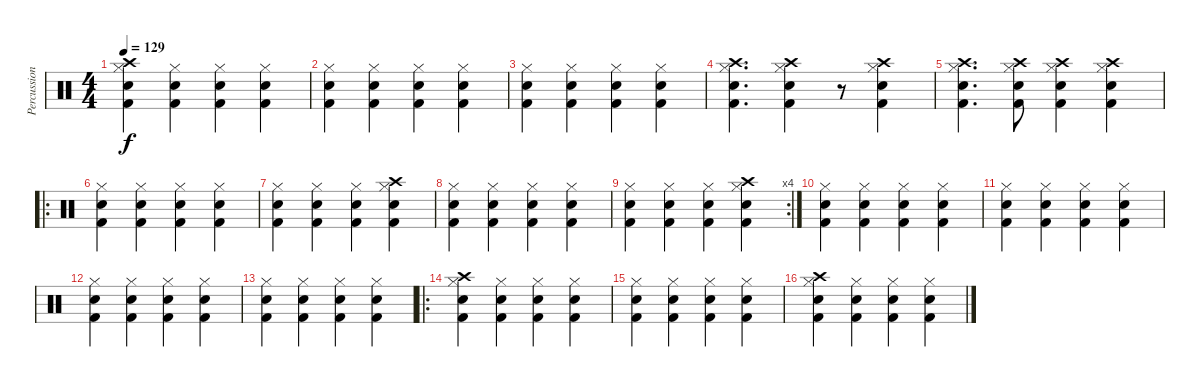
\track ("Percussion" "Percussion") {instrument percussion}
\staff {score}
\articulation defaults
\ts (4 4)
\tempo 129
\clef neutral
\ks c
("Crash high (hit)" "Hi-Hat (closed)" "Electric Snare (hit)" "Kick (hit) 2").4{dy f} ("Hi-Hat (closed)" "Electric Snare (hit)" "Kick (hit) 2").4 ("Hi-Hat (closed)" "Electric Snare (hit)" "Kick (hit) 2").4 ("Hi-Hat (closed)" "Electric Snare (hit)" "Kick (hit) 2").4 |
("Hi-Hat (closed)" "Electric Snare (hit)" "Kick (hit) 2").4 ("Hi-Hat (closed)" "Electric Snare (hit)" "Kick (hit) 2").4 ("Hi-Hat (closed)" "Electric Snare (hit)" "Kick (hit) 2").4 ("Hi-Hat (closed)" "Electric Snare (hit)" "Kick (hit) 2").4 |
("Hi-Hat (closed)" "Electric Snare (hit)" "Kick (hit) 2").4 ("Hi-Hat (closed)" "Electric Snare (hit)" "Kick (hit) 2").4 ("Hi-Hat (closed)" "Electric Snare (hit)" "Kick (hit) 2").4 ("Hi-Hat (closed)" "Electric Snare (hit)" "Kick (hit) 2").4 |
("Crash high (hit)" "Hi-Hat (closed)" "Electric Snare (hit)" "Kick (hit) 2").4{d} ("Crash high (hit)" "Hi-Hat (closed)" "Electric Snare (hit)" "Kick (hit) 2").4 r.8 ("Crash high (hit)" "Hi-Hat (closed)" "Electric Snare (hit)" "Kick (hit) 2").4 |
("Crash high (hit)" "Hi-Hat (closed)" "Electric Snare (hit)" "Kick (hit) 2").4{d} ("Crash high (hit)" "Hi-Hat (closed)" "Electric Snare (hit)" "Kick (hit) 2").8 ("Crash high (hit)" "Hi-Hat (closed)" "Electric Snare (hit)" "Kick (hit) 2").4 ("Crash high (hit)" "Hi-Hat (closed)" "Electric Snare (hit)" "Kick (hit) 2").4 |
\ro
("Hi-Hat (closed)" "Electric Snare (hit)" "Kick (hit) 2").4 ("Hi-Hat (closed)" "Electric Snare (hit)" "Kick (hit) 2").4 ("Hi-Hat (closed)" "Electric Snare (hit)" "Kick (hit) 2").4 ("Hi-Hat (closed)" "Electric Snare (hit)" "Kick (hit) 2").4 |
("Hi-Hat (closed)" "Electric Snare (hit)" "Kick (hit) 2").4 ("Hi-Hat (closed)" "Electric Snare (hit)" "Kick (hit) 2").4 ("Hi-Hat (closed)" "Electric Snare (hit)" "Kick (hit) 2").4 ("Crash high (hit)" "Hi-Hat (closed)" "Electric Snare (hit)" "Kick (hit) 2").4 |
("Hi-Hat (closed)" "Electric Snare (hit)" "Kick (hit) 2").4 ("Hi-Hat (closed)" "Electric Snare (hit)" "Kick (hit) 2").4 ("Hi-Hat (closed)" "Electric Snare (hit)" "Kick (hit) 2").4 ("Hi-Hat (closed)" "Electric Snare (hit)" "Kick (hit) 2").4 |
\rc 4
("Hi-Hat (closed)" "Electric Snare (hit)" "Kick (hit) 2").4 ("Hi-Hat (closed)" "Electric Snare (hit)" "Kick (hit) 2").4 ("Hi-Hat (closed)" "Electric Snare (hit)" "Kick (hit) 2").4 ("Crash high (hit)" "Hi-Hat (closed)" "Electric Snare (hit)" "Kick (hit) 2").4 |
("Hi-Hat (closed)" "Electric Snare (hit)" "Kick (hit) 2").4 ("Hi-Hat (closed)" "Electric Snare (hit)" "Kick (hit) 2").4 ("Hi-Hat (closed)" "Electric Snare (hit)" "Kick (hit) 2").4 ("Hi-Hat (closed)" "Electric Snare (hit)" "Kick (hit) 2").4 |
("Hi-Hat (closed)" "Electric Snare (hit)" "Kick (hit) 2").4 ("Hi-Hat (closed)" "Electric Snare (hit)" "Kick (hit) 2").4 ("Hi-Hat (closed)" "Electric Snare (hit)" "Kick (hit) 2").4 ("Hi-Hat (closed)" "Electric Snare (hit)" "Kick (hit) 2").4 |
("Hi-Hat (closed)" "Electric Snare (hit)" "Kick (hit) 2").4 ("Hi-Hat (closed)" "Electric Snare (hit)" "Kick (hit) 2").4 ("Hi-Hat (closed)" "Electric Snare (hit)" "Kick (hit) 2").4 ("Hi-Hat (closed)" "Electric Snare (hit)" "Kick (hit) 2").4 |
("Hi-Hat (closed)" "Electric Snare (hit)" "Kick (hit) 2").4 ("Hi-Hat (closed)" "Electric Snare (hit)" "Kick (hit) 2").4 ("Hi-Hat (closed)" "Electric Snare (hit)" "Kick (hit) 2").4 ("Hi-Hat (closed)" "Electric Snare (hit)" "Kick (hit) 2").4 |
\ro
("Crash high (hit)" "Hi-Hat (closed)" "Electric Snare (hit)" "Kick (hit) 2").4 ("Hi-Hat (closed)" "Electric Snare (hit)" "Kick (hit) 2").4 ("Hi-Hat (closed)" "Electric Snare (hit)" "Kick (hit) 2").4 ("Hi-Hat (closed)" "Electric Snare (hit)" "Kick (hit) 2").4 |
("Hi-Hat (closed)" "Electric Snare (hit)" "Kick (hit) 2").4 ("Hi-Hat (closed)" "Electric Snare (hit)" "Kick (hit) 2").4 ("Hi-Hat (closed)" "Electric Snare (hit)" "Kick (hit) 2").4 ("Hi-Hat (closed)" "Electric Snare (hit)" "Kick (hit) 2").4 |
("Crash high (hit)" "Hi-Hat (closed)" "Electric Snare (hit)" "Kick (hit) 2").4 ("Hi-Hat (closed)" "Electric Snare (hit)" "Kick (hit) 2").4 ("Hi-Hat (closed)" "Electric Snare (hit)" "Kick (hit) 2").4 ("Hi-Hat (closed)" "Electric Snare (hit)" "Kick (hit) 2").4
